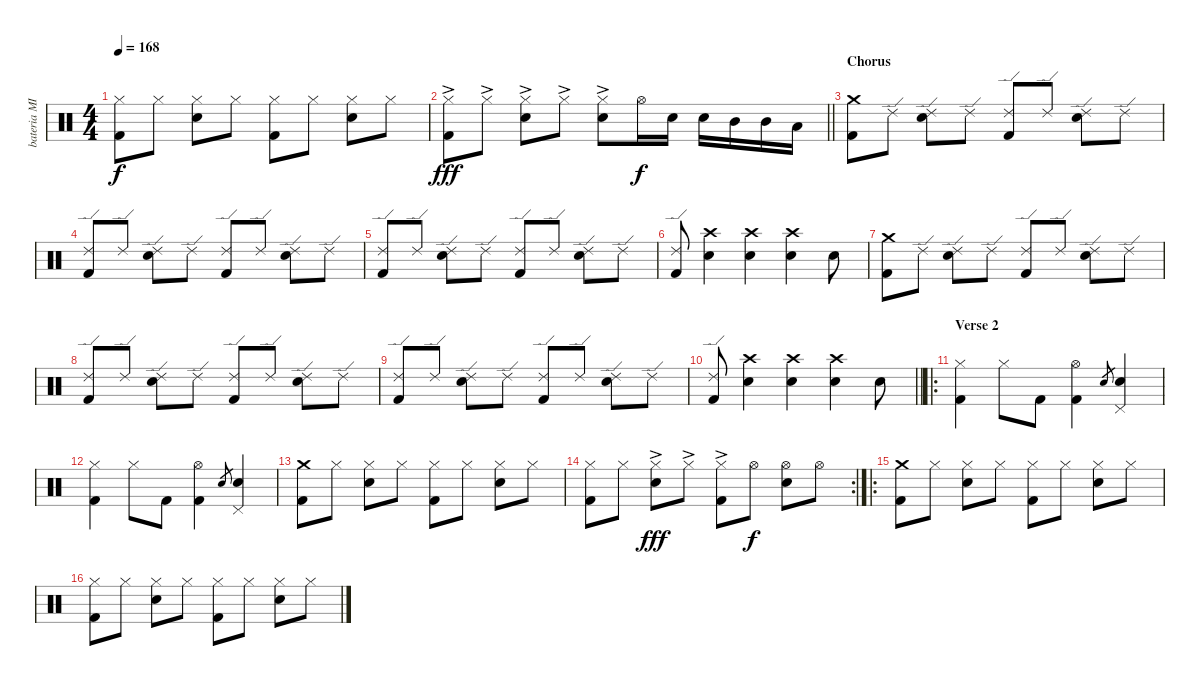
\track ("bateria MIDI" "bateria MI") {instrument percussion}
\staff {score}
\articulation defaults
\ts (4 4)
\tempo 168
\clef neutral
\ks c
("Hi-Hat (closed)" "Kick (hit) 2").8{dy f} "Hi-Hat (closed)".8 ("Hi-Hat (closed)" "Snare (hit) 2").8 "Hi-Hat (closed)".8 ("Hi-Hat (closed)" "Kick (hit) 2").8 "Hi-Hat (closed)".8 ("Hi-Hat (closed)" "Snare (hit) 2").8 "Hi-Hat (closed)".8 |
\barLineRight lightlight
("Hi-Hat (closed)"{ac} "Kick (hit) 2").8{dy fff} "Hi-Hat (closed)"{ac}.8 ("Hi-Hat (closed)"{ac} "Snare (hit) 2").8 "Hi-Hat (closed)"{ac}.8 ("Hi-Hat (closed)"{ac} "Snare (hit) 2").8 "Hi-Hat (open)".16{dy f} "Snare (hit) 2".16 "Snare (hit) 2".16 "Mid Tom (hit)".16 "Mid Tom (hit)".16 "Low Tom (hit)".16 |
\section ("" "Chorus")
("Crash medium (hit)" "Kick (hit) 2").8 "Ride (edge) 2".8 ("Ride (edge) 2" "Snare (hit) 2").8 "Ride (edge) 2".8 ("Ride (edge) 2" "Kick (hit) 2").8 "Ride (edge) 2".8 ("Ride (edge) 2" "Snare (hit) 2").8 "Ride (edge) 2".8 |
("Ride (edge) 2" "Kick (hit) 2").8 "Ride (edge) 2".8 ("Ride (edge) 2" "Snare (hit) 2").8 "Ride (edge) 2".8 ("Ride (edge) 2" "Kick (hit) 2").8 "Ride (edge) 2".8 ("Ride (edge) 2" "Snare (hit) 2").8 "Ride (edge) 2".8 |
("Ride (edge) 2" "Kick (hit) 2").8 "Ride (edge) 2".8 ("Ride (edge) 2" "Snare (hit) 2").8 "Ride (edge) 2".8 ("Ride (edge) 2" "Kick (hit) 2").8 "Ride (edge) 2".8 ("Ride (edge) 2" "Snare (hit) 2").8 "Ride (edge) 2".8 |
("Ride (edge) 2" "Kick (hit) 2").8 ("Crash high (hit)" "Snare (hit) 2").4 ("Crash high (hit)" "Snare (hit) 2").4 ("Crash high (hit)" "Snare (hit) 2").4 "Snare (hit) 2".8 |
("Crash medium (hit)" "Kick (hit) 2").8 "Ride (edge) 2".8 ("Ride (edge) 2" "Snare (hit) 2").8 "Ride (edge) 2".8 ("Ride (edge) 2" "Kick (hit) 2").8 "Ride (edge) 2".8 ("Ride (edge) 2" "Snare (hit) 2").8 "Ride (edge) 2".8 |
("Ride (edge) 2" "Kick (hit) 2").8 "Ride (edge) 2".8 ("Ride (edge) 2" "Snare (hit) 2").8 "Ride (edge) 2".8 ("Ride (edge) 2" "Kick (hit) 2").8 "Ride (edge) 2".8 ("Ride (edge) 2" "Snare (hit) 2").8 "Ride (edge) 2".8 |
("Ride (edge) 2" "Kick (hit) 2").8 "Ride (edge) 2".8 ("Ride (edge) 2" "Snare (hit) 2").8 "Ride (edge) 2".8 ("Ride (edge) 2" "Kick (hit) 2").8 "Ride (edge) 2".8 ("Ride (edge) 2" "Snare (hit) 2").8 "Ride (edge) 2".8 |
\barLineRight lightlight
("Ride (edge) 2" "Kick (hit) 2").8 ("Crash high (hit)" "Snare (hit) 2").4 ("Crash high (hit)" "Snare (hit) 2").4 ("Crash high (hit)" "Snare (hit) 2").4 "Snare (hit) 2".8 |
\ro
\section ("" "Verse 2")
("Hi-Hat (closed)" "Kick (hit) 2").4 "Hi-Hat (closed)".8 "Kick (hit) 2".8 ("Hi-Hat (open)" "Kick (hit) 2").4 "Snare (hit) 2".8{gr} ("Pedal Hi-Hat (hit)" "Snare (hit) 2").4 |
("Hi-Hat (closed)" "Kick (hit) 2").4 "Hi-Hat (closed)".8 "Kick (hit) 2".8 ("Hi-Hat (open)" "Kick (hit) 2").4 "Snare (hit) 2".8{gr} ("Pedal Hi-Hat (hit)" "Snare (hit) 2").4 |
("Crash medium (hit)" "Kick (hit) 2").8 "Hi-Hat (closed)".8 ("Hi-Hat (closed)" "Snare (hit) 2").8 "Hi-Hat (closed)".8 ("Hi-Hat (closed)" "Kick (hit) 2").8 "Hi-Hat (closed)".8 ("Hi-Hat (closed)" "Snare (hit) 2").8 "Hi-Hat (closed)".8 |
\rc 2
("Hi-Hat (closed)" "Kick (hit) 2").8 "Hi-Hat (closed)".8 ("Hi-Hat (closed)"{ac} "Snare (hit) 2").8{dy fff} "Hi-Hat (closed)"{ac}.8 ("Hi-Hat (closed)"{ac} "Kick (hit) 2").8 "Hi-Hat (open)".8{dy f} ("Hi-Hat (open)" "Snare (hit) 2").8 "Hi-Hat (open)".8 |
\ro
("Crash medium (hit)" "Kick (hit) 2").8 "Hi-Hat (closed)".8 ("Hi-Hat (closed)" "Snare (hit) 2").8 "Hi-Hat (closed)".8 ("Hi-Hat (closed)" "Kick (hit) 2").8 "Hi-Hat (closed)".8 ("Hi-Hat (closed)" "Snare (hit) 2").8 "Hi-Hat (closed)".8 |
("Hi-Hat (closed)" "Kick (hit) 2").8 "Hi-Hat (closed)".8 ("Hi-Hat (closed)" "Snare (hit) 2").8 "Hi-Hat (closed)".8 ("Hi-Hat (closed)" "Kick (hit) 2").8 "Hi-Hat (closed)".8 ("Hi-Hat (closed)" "Snare (hit) 2").8 "Hi-Hat (closed)".8
